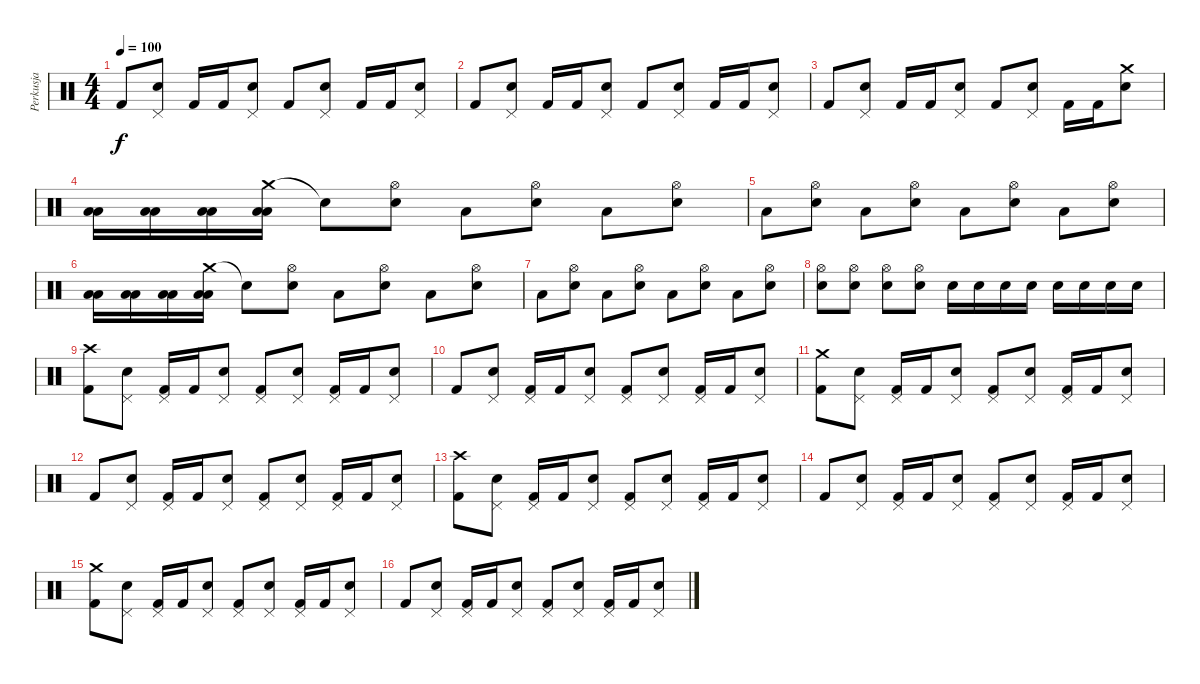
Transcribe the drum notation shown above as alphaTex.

\track ("Perkusja" "Perkusja") {instrument percussion}
\staff {score}
\articulation defaults
\ts (4 4)
\tempo 100
\clef neutral
\ks c "Kick (hit) 2".8{dy f}
("Pedal Hi-Hat (hit)" "Snare (hit) 2").8 "Kick (hit) 2".16 "Kick (hit) 2".16 ("Pedal Hi-Hat (hit)" "Snare (hit) 2").8 "Kick (hit) 2".8 ("Pedal Hi-Hat (hit)" "Snare (hit) 2").8 "Kick (hit) 2".16 "Kick (hit) 2".16 ("Pedal Hi-Hat (hit)" "Snare (hit) 2").8 |
"Kick (hit) 2".8 ("Pedal Hi-Hat (hit)" "Snare (hit) 2").8 "Kick (hit) 2".16 "Kick (hit) 2".16 ("Pedal Hi-Hat (hit)" "Snare (hit) 2").8 "Kick (hit) 2".8 ("Pedal Hi-Hat (hit)" "Snare (hit) 2").8 "Kick (hit) 2".16 "Kick (hit) 2".16 ("Pedal Hi-Hat (hit)" "Snare (hit) 2").8 |
"Kick (hit) 2".8 ("Pedal Hi-Hat (hit)" "Snare (hit) 2").8 "Kick (hit) 2".16 "Kick (hit) 2".16 ("Pedal Hi-Hat (hit)" "Snare (hit) 2").8 "Kick (hit) 2".8 ("Pedal Hi-Hat (hit)" "Snare (hit) 2").8 "Kick (hit) 2".16 "Kick (hit) 2".16 ("Crash medium (hit)" "Snare (hit) 2").8 |
("Low Tom (hit)" "Low Tom (hit)").16 ("Low Tom (hit)" "Low Tom (hit)").16 ("Low Tom (hit)" "Low Tom (hit)").16 ("Crash medium (hit)" "Low Tom (hit)" "Low Tom (hit)").16 "Snare (hit)"{t}.8 ("Hi-Hat (open)" "Snare (hit) 2").8 "Low Tom (hit)".8 ("Hi-Hat (open)" "Snare (hit) 2").8 "Low Tom (hit)".8 ("Hi-Hat (open)" "Snare (hit) 2").8 |
"Low Tom (hit)".8 ("Hi-Hat (open)" "Snare (hit) 2").8 "Low Tom (hit)".8 ("Hi-Hat (open)" "Snare (hit) 2").8 "Low Tom (hit)".8 ("Hi-Hat (open)" "Snare (hit) 2").8 "Low Tom (hit)".8 ("Hi-Hat (open)" "Snare (hit) 2").8 |
("Low Tom (hit)" "Low Tom (hit)").16 ("Low Tom (hit)" "Low Tom (hit)").16 ("Low Tom (hit)" "Low Tom (hit)").16 ("Crash medium (hit)" "Low Tom (hit)" "Low Tom (hit)").16 "Snare (hit)"{t}.8 ("Hi-Hat (open)" "Snare (hit) 2").8 "Low Tom (hit)".8 ("Hi-Hat (open)" "Snare (hit) 2").8 "Low Tom (hit)".8 ("Hi-Hat (open)" "Snare (hit) 2").8 |
"Low Tom (hit)".8 ("Hi-Hat (open)" "Snare (hit) 2").8 "Low Tom (hit)".8 ("Hi-Hat (open)" "Snare (hit) 2").8 "Low Tom (hit)".8 ("Hi-Hat (open)" "Snare (hit) 2").8 "Low Tom (hit)".8 ("Hi-Hat (open)" "Snare (hit) 2").8 |
("Hi-Hat (open)" "Snare (hit) 2").8 ("Hi-Hat (open)" "Snare (hit) 2").8 ("Hi-Hat (open)" "Snare (hit) 2").8 ("Hi-Hat (open)" "Snare (hit) 2").8 "Snare (hit) 2".16 "Snare (hit) 2".16 "Snare (hit) 2".16 "Snare (hit) 2".16 "Snare (hit) 2".16 "Snare (hit) 2".16 "Snare (hit) 2".16 "Snare (hit) 2".16 |
("Crash high (hit)" "Kick (hit) 2").8 ("Pedal Hi-Hat (hit)" "Snare (hit) 2").8 ("Pedal Hi-Hat (hit)" "Kick (hit) 2").16 "Kick (hit) 2".16 ("Pedal Hi-Hat (hit)" "Snare (hit) 2").8 ("Pedal Hi-Hat (hit)" "Kick (hit) 2").8 ("Pedal Hi-Hat (hit)" "Snare (hit) 2").8 ("Pedal Hi-Hat (hit)" "Kick (hit) 2").16 "Kick (hit) 2".16 ("Pedal Hi-Hat (hit)" "Snare (hit) 2").8 |
"Kick (hit) 2".8 ("Pedal Hi-Hat (hit)" "Snare (hit) 2").8 ("Pedal Hi-Hat (hit)" "Kick (hit) 2").16 "Kick (hit) 2".16 ("Pedal Hi-Hat (hit)" "Snare (hit) 2").8 ("Pedal Hi-Hat (hit)" "Kick (hit) 2").8 ("Pedal Hi-Hat (hit)" "Snare (hit) 2").8 ("Pedal Hi-Hat (hit)" "Kick (hit) 2").16 "Kick (hit) 2".16 ("Pedal Hi-Hat (hit)" "Snare (hit) 2").8 |
("Crash medium (hit)" "Kick (hit) 2").8 ("Pedal Hi-Hat (hit)" "Snare (hit) 2").8 ("Pedal Hi-Hat (hit)" "Kick (hit) 2").16 "Kick (hit) 2".16 ("Pedal Hi-Hat (hit)" "Snare (hit) 2").8 ("Pedal Hi-Hat (hit)" "Kick (hit) 2").8 ("Pedal Hi-Hat (hit)" "Snare (hit) 2").8 ("Pedal Hi-Hat (hit)" "Kick (hit) 2").16 "Kick (hit) 2".16 ("Pedal Hi-Hat (hit)" "Snare (hit) 2").8 |
"Kick (hit) 2".8 ("Pedal Hi-Hat (hit)" "Snare (hit) 2").8 ("Pedal Hi-Hat (hit)" "Kick (hit) 2").16 "Kick (hit) 2".16 ("Pedal Hi-Hat (hit)" "Snare (hit) 2").8 ("Pedal Hi-Hat (hit)" "Kick (hit) 2").8 ("Pedal Hi-Hat (hit)" "Snare (hit) 2").8 ("Pedal Hi-Hat (hit)" "Kick (hit) 2").16 "Kick (hit) 2".16 ("Pedal Hi-Hat (hit)" "Snare (hit) 2").8 |
("Crash high (hit)" "Kick (hit) 2").8 ("Pedal Hi-Hat (hit)" "Snare (hit) 2").8 ("Pedal Hi-Hat (hit)" "Kick (hit) 2").16 "Kick (hit) 2".16 ("Pedal Hi-Hat (hit)" "Snare (hit) 2").8 ("Pedal Hi-Hat (hit)" "Kick (hit) 2").8 ("Pedal Hi-Hat (hit)" "Snare (hit) 2").8 ("Pedal Hi-Hat (hit)" "Kick (hit) 2").16 "Kick (hit) 2".16 ("Pedal Hi-Hat (hit)" "Snare (hit) 2").8 |
"Kick (hit) 2".8 ("Pedal Hi-Hat (hit)" "Snare (hit) 2").8 ("Pedal Hi-Hat (hit)" "Kick (hit) 2").16 "Kick (hit) 2".16 ("Pedal Hi-Hat (hit)" "Snare (hit) 2").8 ("Pedal Hi-Hat (hit)" "Kick (hit) 2").8 ("Pedal Hi-Hat (hit)" "Snare (hit) 2").8 ("Pedal Hi-Hat (hit)" "Kick (hit) 2").16 "Kick (hit) 2".16 ("Pedal Hi-Hat (hit)" "Snare (hit) 2").8 |
("Crash medium (hit)" "Kick (hit) 2").8 ("Pedal Hi-Hat (hit)" "Snare (hit) 2").8 ("Pedal Hi-Hat (hit)" "Kick (hit) 2").16 "Kick (hit) 2".16 ("Pedal Hi-Hat (hit)" "Snare (hit) 2").8 ("Pedal Hi-Hat (hit)" "Kick (hit) 2").8 ("Pedal Hi-Hat (hit)" "Snare (hit) 2").8 ("Pedal Hi-Hat (hit)" "Kick (hit) 2").16 "Kick (hit) 2".16 ("Pedal Hi-Hat (hit)" "Snare (hit) 2").8 |
"Kick (hit) 2".8 ("Pedal Hi-Hat (hit)" "Snare (hit) 2").8 ("Pedal Hi-Hat (hit)" "Kick (hit) 2").16 "Kick (hit) 2".16 ("Pedal Hi-Hat (hit)" "Snare (hit) 2").8 ("Pedal Hi-Hat (hit)" "Kick (hit) 2").8 ("Pedal Hi-Hat (hit)" "Snare (hit) 2").8 ("Pedal Hi-Hat (hit)" "Kick (hit) 2").16 "Kick (hit) 2".16 ("Pedal Hi-Hat (hit)" "Snare (hit) 2").8
